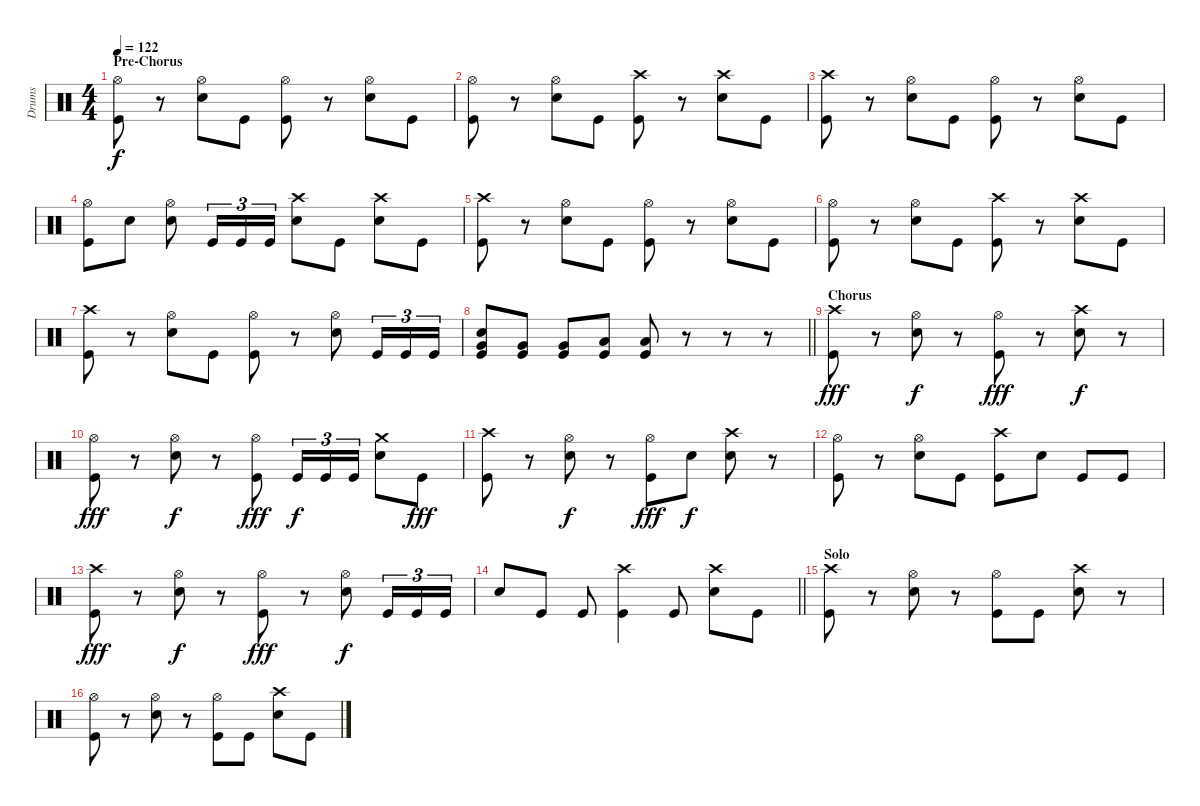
\track ("Drums" "Drums") {instrument percussion}
\staff {score}
\articulation defaults
\ts (4 4)
\section ("" "Pre-Chorus")
\tempo 122
\clef neutral
\ks c
("Hi-Hat (open)" "Kick (hit)").8{dy f} r.8 ("Hi-Hat (open)" "Snare (hit) 2").8 "Kick (hit)".8 ("Kick (hit)" "Hi-Hat (open)").8 r.8 ("Snare (hit) 2" "Hi-Hat (open)").8 "Kick (hit)".8 |
("Hi-Hat (open)" "Kick (hit)").8 r.8 ("Hi-Hat (open)" "Snare (hit) 2").8 "Kick (hit)".8 ("Crash high (hit)" "Kick (hit)").8 r.8 ("Crash high (hit)" "Snare (hit) 2").8 "Kick (hit)".8 |
("Crash high (hit)" "Kick (hit)").8 r.8 ("Hi-Hat (open)" "Snare (hit) 2").8 "Kick (hit)".8 ("Kick (hit)" "Hi-Hat (open)").8 r.8 ("Snare (hit) 2" "Hi-Hat (open)").8 "Kick (hit)".8 |
("Hi-Hat (open)" "Kick (hit)").8 "Snare (hit) 2".8 ("Hi-Hat (open)" "Snare (hit) 2").8 "Kick (hit)".16{tu (3 2)} "Kick (hit)".16{tu (3 2)} "Kick (hit)".16{tu (3 2)} ("Crash high (hit)" "Snare (hit) 2").8 "Kick (hit)".8 ("Snare (hit) 2" "Crash high (hit)").8 "Kick (hit)".8 |
("Crash high (hit)" "Kick (hit)").8 r.8 ("Hi-Hat (open)" "Snare (hit) 2").8 "Kick (hit)".8 ("Kick (hit)" "Hi-Hat (open)").8 r.8 ("Snare (hit) 2" "Hi-Hat (open)").8 "Kick (hit)".8 |
("Hi-Hat (open)" "Kick (hit)").8 r.8 ("Hi-Hat (open)" "Snare (hit) 2").8 "Kick (hit)".8 ("Crash high (hit)" "Kick (hit)").8 r.8 ("Crash high (hit)" "Snare (hit) 2").8 "Kick (hit)".8 |
("Crash high (hit)" "Kick (hit)").8 r.8 ("Hi-Hat (open)" "Snare (hit) 2").8 "Kick (hit)".8 ("Kick (hit)" "Hi-Hat (open)").8 r.8 ("Snare (hit) 2" "Hi-Hat (open)").8 "Kick (hit)".16{tu (3 2)} "Kick (hit)".16{tu (3 2)} "Kick (hit)".16{tu (3 2)} |
\barLineRight lightlight
("Very Low Tom (hit)" "Snare (hit) 2" "Kick (hit)").8 ("Very Low Tom (hit)" "Kick (hit)").8 ("Very Low Tom (hit)" "Kick (hit)").8 ("Low Floor Tom (hit)" "Kick (hit)").8 ("Low Floor Tom (hit)" "Kick (hit)").8 r.8 r.8 r.8 |
\section ("" "Chorus")
("Kick (hit)" "Crash high (hit)").8{dy fff} r.8 ("Hi-Hat (open)" "Snare (hit) 2").8{dy f} r.8 ("Kick (hit)" "Hi-Hat (open)").8{dy fff} r.8 ("Crash high (hit)" "Snare (hit) 2").8{dy f} r.8 |
("Kick (hit)" "Hi-Hat (open)").8{dy fff} r.8 ("Hi-Hat (open)" "Snare (hit) 2").8{dy f} r.8 ("Kick (hit)" "Hi-Hat (open)").8{dy fff} "Kick (hit)".16{tu (3 2) dy f} "Kick (hit)".16{tu (3 2)} "Kick (hit)".16{tu (3 2)} ("Crash medium (hit)" "Snare (hit) 2").8 "Kick (hit)".8{dy fff} |
("Kick (hit)" "Crash high (hit)").8 r.8 ("Hi-Hat (open)" "Snare (hit) 2").8{dy f} r.8 ("Kick (hit)" "Hi-Hat (open)").8{dy fff} "Snare (hit) 2".8{dy f} ("Crash high (hit)" "Snare (hit) 2").8 r.8 |
("Kick (hit)" "Hi-Hat (open)").8 r.8 ("Hi-Hat (open)" "Snare (hit) 2").8 "Kick (hit)".8 ("Kick (hit)" "Crash high (hit)").8 "Snare (hit) 2".8 "Kick (hit)".8 "Kick (hit)".8 |
("Kick (hit)" "Crash high (hit)").8{dy fff} r.8 ("Hi-Hat (open)" "Snare (hit) 2").8{dy f} r.8 ("Kick (hit)" "Hi-Hat (open)").8{dy fff} r.8 ("Hi-Hat (open)" "Snare (hit) 2").8{dy f} "Kick (hit)".16{tu (3 2)} "Kick (hit)".16{tu (3 2)} "Kick (hit)".16{tu (3 2)} |
\barLineRight lightlight "Snare (hit) 2".8 "Kick (hit)".8 "Kick (hit)".8
("Crash high (hit)" "Kick (hit)").4 "Kick (hit)".8 ("Crash high (hit)" "Snare (hit) 2").8 "Kick (hit)".8 |
\section ("" "Solo")
("Crash high (hit)" "Kick (hit)").8 r.8 ("Hi-Hat (open)" "Snare (hit) 2").8 r.8 ("Kick (hit)" "Hi-Hat (open)").8 "Kick (hit)".8 ("Snare (hit) 2" "Crash high (hit)").8 r.8 |
("Hi-Hat (open)" "Kick (hit)").8 r.8 ("Hi-Hat (open)" "Snare (hit) 2").8 r.8 ("Kick (hit)" "Hi-Hat (open)").8 "Kick (hit)".8 ("Snare (hit) 2" "Crash high (hit)").8 "Kick (hit)".8
